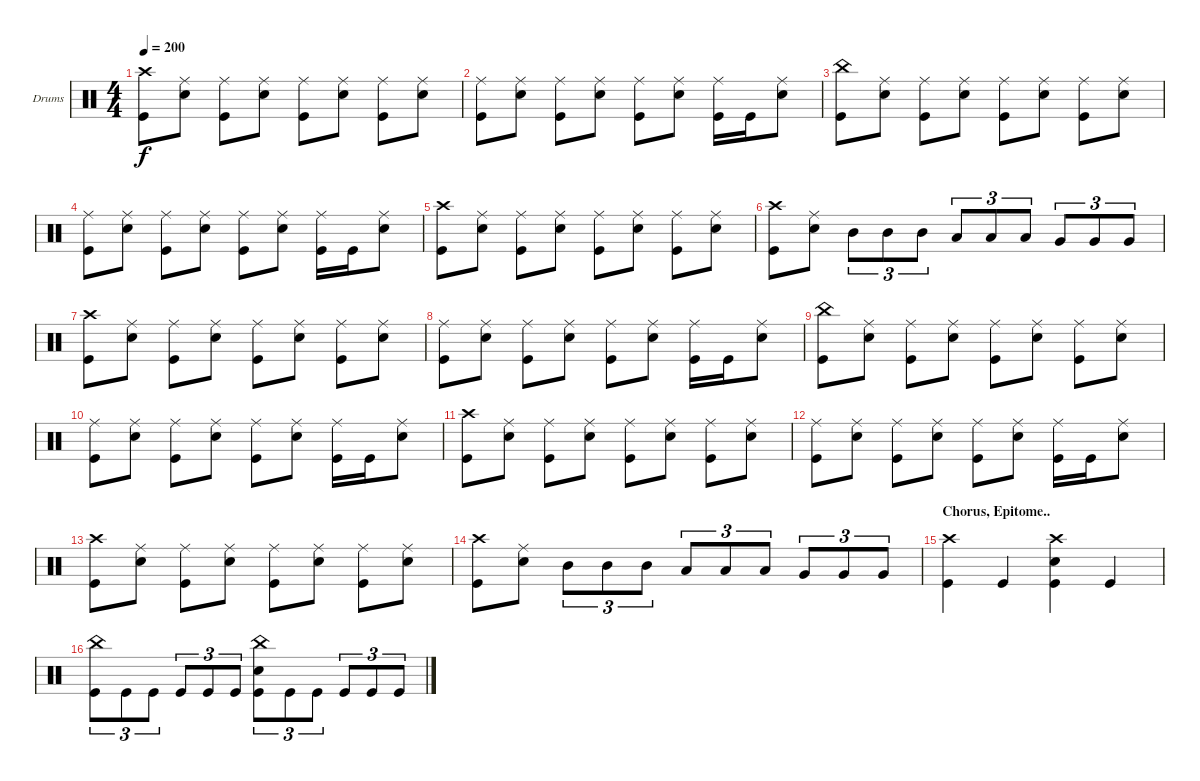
\defaultSystemsLayout 4
\bracketExtendMode groupsimilarinstruments
\firstSystemTrackNameOrientation horizontal
\otherSystemsTrackNameOrientation horizontal
\track ("Markus Freiwald" "Drums") {instrument percussion}
\staff {score}
\articulation defaults
\ts (4 4)
\tempo 200
\clef neutral
\ks c
("Crash high (hit)" "Kick (hit)").8{dy f} ("Snare (hit) 2" "Ride (middle)").8 ("Ride (middle)" "Kick (hit)").8 ("Snare (hit) 2" "Ride (middle)").8 ("Ride (middle)" "Kick (hit)").8 ("Snare (hit) 2" "Ride (middle)").8 ("Ride (middle)" "Kick (hit)").8 ("Snare (hit) 2" "Ride (middle)").8 |
("Ride (middle)" "Kick (hit)").8 ("Snare (hit) 2" "Ride (middle)").8 ("Ride (middle)" "Kick (hit)").8 ("Snare (hit) 2" "Ride (middle)").8 ("Ride (middle)" "Kick (hit)").8 ("Snare (hit) 2" "Ride (middle)").8 ("Ride (middle)" "Kick (hit)").16 "Kick (hit)".16 ("Snare (hit) 2" "Ride (middle)").8 |
("Kick (hit)" "China (hit)").8 ("Snare (hit) 2" "Ride (middle)").8 ("Ride (middle)" "Kick (hit)").8 ("Snare (hit) 2" "Ride (middle)").8 ("Ride (middle)" "Kick (hit)").8 ("Snare (hit) 2" "Ride (middle)").8 ("Ride (middle)" "Kick (hit)").8 ("Snare (hit) 2" "Ride (middle)").8 |
("Ride (middle)" "Kick (hit)").8 ("Snare (hit) 2" "Ride (middle)").8 ("Ride (middle)" "Kick (hit)").8 ("Snare (hit) 2" "Ride (middle)").8 ("Ride (middle)" "Kick (hit)").8 ("Snare (hit) 2" "Ride (middle)").8 ("Ride (middle)" "Kick (hit)").16 "Kick (hit)".16 ("Snare (hit) 2" "Ride (middle)").8 |
("Crash high (hit)" "Kick (hit)").8 ("Snare (hit) 2" "Ride (middle)").8 ("Ride (middle)" "Kick (hit)").8 ("Snare (hit) 2" "Ride (middle)").8 ("Ride (middle)" "Kick (hit)").8 ("Snare (hit) 2" "Ride (middle)").8 ("Ride (middle)" "Kick (hit)").8 ("Snare (hit) 2" "Ride (middle)").8 |
("Crash high (hit)" "Kick (hit)").8 ("Snare (hit) 2" "Ride (middle)").8 "Mid Tom (hit)".8{tu (3 2)} "Mid Tom (hit)".8{tu (3 2)} "Mid Tom (hit)".8{tu (3 2)} "Low Tom (hit)".8{tu (3 2)} "Low Tom (hit)".8{tu (3 2)} "Low Tom (hit)".8{tu (3 2)} "Very Low Tom (hit)".8{tu (3 2)} "Very Low Tom (hit)".8{tu (3 2)} "Very Low Tom (hit)".8{tu (3 2)} |
("Crash high (hit)" "Kick (hit)").8 ("Snare (hit) 2" "Ride (middle)").8 ("Ride (middle)" "Kick (hit)").8 ("Snare (hit) 2" "Ride (middle)").8 ("Ride (middle)" "Kick (hit)").8 ("Snare (hit) 2" "Ride (middle)").8 ("Ride (middle)" "Kick (hit)").8 ("Snare (hit) 2" "Ride (middle)").8 |
("Ride (middle)" "Kick (hit)").8 ("Snare (hit) 2" "Ride (middle)").8 ("Ride (middle)" "Kick (hit)").8 ("Snare (hit) 2" "Ride (middle)").8 ("Ride (middle)" "Kick (hit)").8 ("Snare (hit) 2" "Ride (middle)").8 ("Ride (middle)" "Kick (hit)").16 "Kick (hit)".16 ("Snare (hit) 2" "Ride (middle)").8 |
("Kick (hit)" "China (hit)").8 ("Snare (hit) 2" "Ride (middle)").8 ("Ride (middle)" "Kick (hit)").8 ("Snare (hit) 2" "Ride (middle)").8 ("Ride (middle)" "Kick (hit)").8 ("Snare (hit) 2" "Ride (middle)").8 ("Ride (middle)" "Kick (hit)").8 ("Snare (hit) 2" "Ride (middle)").8 |
("Ride (middle)" "Kick (hit)").8 ("Snare (hit) 2" "Ride (middle)").8 ("Ride (middle)" "Kick (hit)").8 ("Snare (hit) 2" "Ride (middle)").8 ("Ride (middle)" "Kick (hit)").8 ("Snare (hit) 2" "Ride (middle)").8 ("Ride (middle)" "Kick (hit)").16 "Kick (hit)".16 ("Snare (hit) 2" "Ride (middle)").8 |
("Crash high (hit)" "Kick (hit)").8 ("Snare (hit) 2" "Ride (middle)").8 ("Ride (middle)" "Kick (hit)").8 ("Snare (hit) 2" "Ride (middle)").8 ("Ride (middle)" "Kick (hit)").8 ("Snare (hit) 2" "Ride (middle)").8 ("Ride (middle)" "Kick (hit)").8 ("Snare (hit) 2" "Ride (middle)").8 |
("Ride (middle)" "Kick (hit)").8 ("Snare (hit) 2" "Ride (middle)").8 ("Ride (middle)" "Kick (hit)").8 ("Snare (hit) 2" "Ride (middle)").8 ("Ride (middle)" "Kick (hit)").8 ("Snare (hit) 2" "Ride (middle)").8 ("Ride (middle)" "Kick (hit)").16 "Kick (hit)".16 ("Snare (hit) 2" "Ride (middle)").8 |
("Crash high (hit)" "Kick (hit)").8 ("Snare (hit) 2" "Ride (middle)").8 ("Ride (middle)" "Kick (hit)").8 ("Snare (hit) 2" "Ride (middle)").8 ("Ride (middle)" "Kick (hit)").8 ("Snare (hit) 2" "Ride (middle)").8 ("Ride (middle)" "Kick (hit)").8 ("Snare (hit) 2" "Ride (middle)").8 |
("Crash high (hit)" "Kick (hit)").8 ("Snare (hit) 2" "Ride (middle)").8 "Mid Tom (hit)".8{tu (3 2)} "Mid Tom (hit)".8{tu (3 2)} "Mid Tom (hit)".8{tu (3 2)} "Low Tom (hit)".8{tu (3 2)} "Low Tom (hit)".8{tu (3 2)} "Low Tom (hit)".8{tu (3 2)} "Very Low Tom (hit)".8{tu (3 2)} "Very Low Tom (hit)".8{tu (3 2)} "Very Low Tom (hit)".8{tu (3 2)} |
\section ("" "Chorus, Epitome..")
("Crash high (hit)" "Kick (hit)").4 "Kick (hit)".4 ("Snare (hit) 2" "Crash high (hit)" "Kick (hit)").4 "Kick (hit)".4 |
("China (hit)" "Kick (hit)").8{tu (3 2)} "Kick (hit)".8{tu (3 2)} "Kick (hit)".8{tu (3 2)} "Kick (hit)".8{tu (3 2)} "Kick (hit)".8{tu (3 2)} "Kick (hit)".8{tu (3 2)} ("China (hit)" "Kick (hit)" "Snare (hit) 2").8{tu (3 2)} "Kick (hit)".8{tu (3 2)} "Kick (hit)".8{tu (3 2)} "Kick (hit)".8{tu (3 2)} "Kick (hit)".8{tu (3 2)} "Kick (hit)".8{tu (3 2)}
